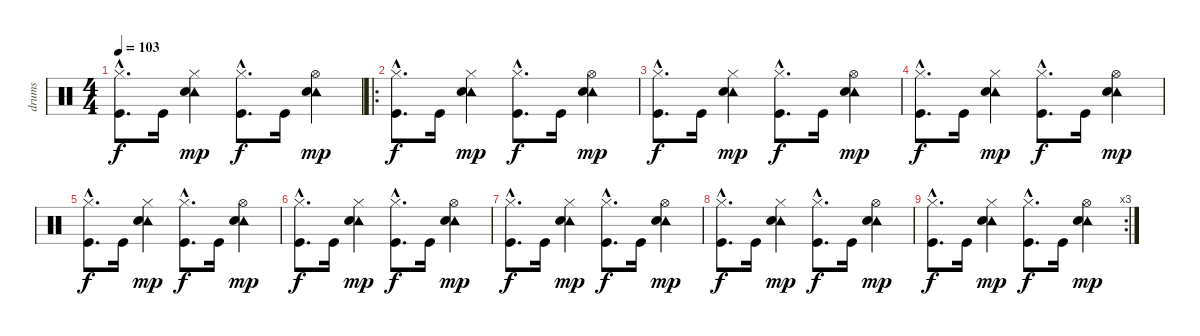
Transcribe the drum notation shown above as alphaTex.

\track ("drums" "drums") {instrument percussion}
\staff {score}
\articulation defaults
\ts (4 4)
\tempo 103
\clef neutral
\ks c
("Hi-Hat (closed)"{hac} "Kick (hit)"{hac}).8{d dy f} "Kick (hit)".16 ("Tambourine (hit)" "Hi-Hat (closed)" "Electric Snare (hit)").4{dy mp} ("Hi-Hat (closed)"{hac} "Kick (hit)"{hac}).8{d dy f} "Kick (hit)".16 ("Tambourine (hit)" "Hi-Hat (open)" "Electric Snare (hit)").4{dy mp} |
\ro
("Hi-Hat (closed)"{hac} "Kick (hit)"{hac}).8{d dy f} "Kick (hit)".16 ("Tambourine (hit)" "Hi-Hat (closed)" "Electric Snare (hit)").4{dy mp} ("Hi-Hat (closed)"{hac} "Kick (hit)"{hac}).8{d dy f} "Kick (hit)".16 ("Tambourine (hit)" "Hi-Hat (open)" "Electric Snare (hit)").4{dy mp} |
("Hi-Hat (closed)"{hac} "Kick (hit)"{hac}).8{d dy f} "Kick (hit)".16 ("Tambourine (hit)" "Hi-Hat (closed)" "Electric Snare (hit)").4{dy mp} ("Hi-Hat (closed)"{hac} "Kick (hit)"{hac}).8{d dy f} "Kick (hit)".16 ("Tambourine (hit)" "Hi-Hat (open)" "Electric Snare (hit)").4{dy mp} |
("Hi-Hat (closed)"{hac} "Kick (hit)"{hac}).8{d dy f} "Kick (hit)".16 ("Tambourine (hit)" "Hi-Hat (closed)" "Electric Snare (hit)").4{dy mp} ("Hi-Hat (closed)"{hac} "Kick (hit)"{hac}).8{d dy f} "Kick (hit)".16 ("Tambourine (hit)" "Hi-Hat (open)" "Electric Snare (hit)").4{dy mp} |
("Hi-Hat (closed)"{hac} "Kick (hit)"{hac}).8{d dy f} "Kick (hit)".16 ("Tambourine (hit)" "Hi-Hat (closed)" "Electric Snare (hit)").4{dy mp} ("Hi-Hat (closed)"{hac} "Kick (hit)"{hac}).8{d dy f} "Kick (hit)".16 ("Tambourine (hit)" "Hi-Hat (open)" "Electric Snare (hit)").4{dy mp} |
("Hi-Hat (closed)"{hac} "Kick (hit)"{hac}).8{d dy f} "Kick (hit)".16 ("Tambourine (hit)" "Hi-Hat (closed)" "Electric Snare (hit)").4{dy mp} ("Hi-Hat (closed)"{hac} "Kick (hit)"{hac}).8{d dy f} "Kick (hit)".16 ("Tambourine (hit)" "Hi-Hat (open)" "Electric Snare (hit)").4{dy mp} |
("Hi-Hat (closed)"{hac} "Kick (hit)"{hac}).8{d dy f} "Kick (hit)".16 ("Tambourine (hit)" "Hi-Hat (closed)" "Electric Snare (hit)").4{dy mp} ("Hi-Hat (closed)"{hac} "Kick (hit)"{hac}).8{d dy f} "Kick (hit)".16 ("Tambourine (hit)" "Hi-Hat (open)" "Electric Snare (hit)").4{dy mp} |
("Hi-Hat (closed)"{hac} "Kick (hit)"{hac}).8{d dy f} "Kick (hit)".16 ("Tambourine (hit)" "Hi-Hat (closed)" "Electric Snare (hit)").4{dy mp} ("Hi-Hat (closed)"{hac} "Kick (hit)"{hac}).8{d dy f} "Kick (hit)".16 ("Tambourine (hit)" "Hi-Hat (open)" "Electric Snare (hit)").4{dy mp} |
\rc 3
("Hi-Hat (closed)"{hac} "Kick (hit)"{hac}).8{d dy f} "Kick (hit)".16 ("Tambourine (hit)" "Hi-Hat (closed)" "Electric Snare (hit)").4{dy mp} ("Hi-Hat (closed)"{hac} "Kick (hit)"{hac}).8{d dy f} "Kick (hit)".16 ("Tambourine (hit)" "Hi-Hat (open)" "Electric Snare (hit)").4{dy mp}
